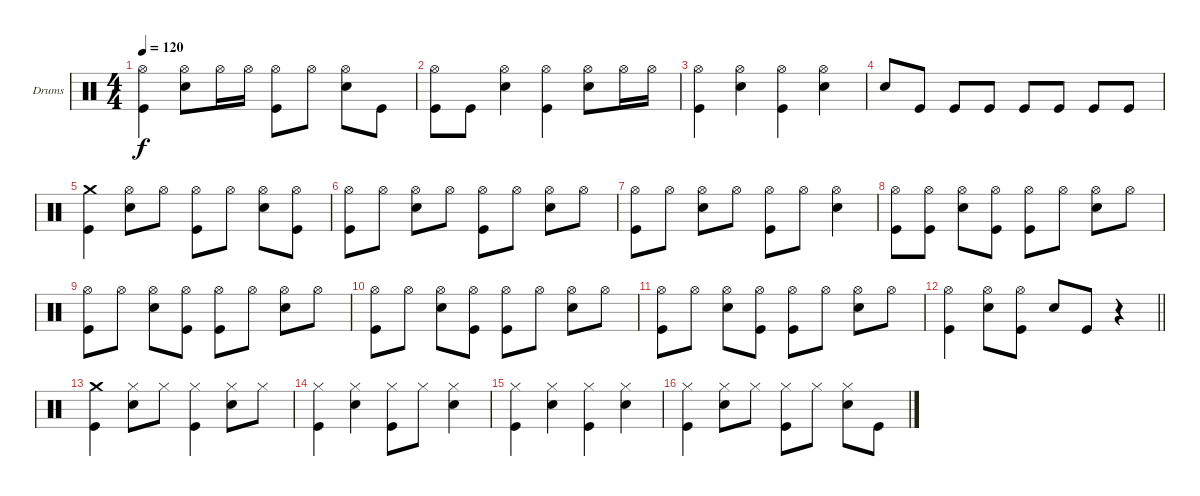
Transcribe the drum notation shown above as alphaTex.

\defaultSystemsLayout 4
\bracketExtendMode groupsimilarinstruments
\firstSystemTrackNameOrientation horizontal
\otherSystemsTrackNameOrientation horizontal
\track ("Drums" "Drums") {instrument percussion}
\staff {score}
\articulation defaults
\ts (4 4)
\tempo 120
\clef neutral
\ks c
("Kick (hit)" "Hi-Hat (open)").4{dy f} ("Hi-Hat (open)" "Snare (hit) 2").8 "Hi-Hat (open)".16 "Hi-Hat (open)".16 ("Kick (hit)" "Hi-Hat (open)").8 "Hi-Hat (open)".8 ("Hi-Hat (open)" "Snare (hit) 2").8 "Kick (hit)".8 |
("Kick (hit)" "Hi-Hat (open)").8 "Kick (hit)".8 ("Hi-Hat (open)" "Snare (hit) 2").4 ("Kick (hit)" "Hi-Hat (open)").4 ("Hi-Hat (open)" "Snare (hit) 2").8 "Hi-Hat (open)".16 "Hi-Hat (open)".16 |
("Kick (hit)" "Hi-Hat (open)").4 ("Hi-Hat (open)" "Snare (hit) 2").4 ("Kick (hit)" "Hi-Hat (open)").4 ("Hi-Hat (open)" "Snare (hit) 2").4 |
"Snare (hit) 2".8 "Kick (hit)".8 "Kick (hit)".8 "Kick (hit)".8 "Kick (hit)".8 "Kick (hit)".8 "Kick (hit)".8 "Kick (hit)".8 |
("Kick (hit)" "Crash medium (hit)").4 ("Hi-Hat (open)" "Snare (hit) 2").8 "Hi-Hat (open)".8 ("Kick (hit)" "Hi-Hat (open)").8 "Hi-Hat (open)".8 ("Hi-Hat (open)" "Snare (hit) 2").8 ("Hi-Hat (open)" "Kick (hit)").8 |
("Kick (hit)" "Hi-Hat (open)").8 "Hi-Hat (open)".8 ("Hi-Hat (open)" "Snare (hit) 2").8 "Hi-Hat (open)".8 ("Kick (hit)" "Hi-Hat (open)").8 "Hi-Hat (open)".8 ("Hi-Hat (open)" "Snare (hit) 2").8 "Hi-Hat (open)".8 |
("Kick (hit)" "Hi-Hat (open)").8 "Hi-Hat (open)".8 ("Hi-Hat (open)" "Snare (hit) 2").8 "Hi-Hat (open)".8 ("Kick (hit)" "Hi-Hat (open)").8 "Hi-Hat (open)".8 ("Hi-Hat (open)" "Snare (hit) 2").4 |
("Kick (hit)" "Hi-Hat (open)").8 ("Hi-Hat (open)" "Kick (hit)").8 ("Hi-Hat (open)" "Snare (hit) 2").8 ("Hi-Hat (open)" "Kick (hit)").8 ("Kick (hit)" "Hi-Hat (open)").8 "Hi-Hat (open)".8 ("Hi-Hat (open)" "Snare (hit) 2").8 "Hi-Hat (open)".8 |
("Kick (hit)" "Hi-Hat (open)").8 "Hi-Hat (open)".8 ("Hi-Hat (open)" "Snare (hit) 2").8 ("Hi-Hat (open)" "Kick (hit)").8 ("Kick (hit)" "Hi-Hat (open)").8 "Hi-Hat (open)".8 ("Hi-Hat (open)" "Snare (hit) 2").8 "Hi-Hat (open)".8 |
("Kick (hit)" "Hi-Hat (open)").8 "Hi-Hat (open)".8 ("Hi-Hat (open)" "Snare (hit) 2").8 ("Hi-Hat (open)" "Kick (hit)").8 ("Kick (hit)" "Hi-Hat (open)").8 "Hi-Hat (open)".8 ("Hi-Hat (open)" "Snare (hit) 2").8 "Hi-Hat (open)".8 |
("Kick (hit)" "Hi-Hat (open)").8 "Hi-Hat (open)".8 ("Hi-Hat (open)" "Snare (hit) 2").8 ("Hi-Hat (open)" "Kick (hit)").8 ("Kick (hit)" "Hi-Hat (open)").8 "Hi-Hat (open)".8 ("Hi-Hat (open)" "Snare (hit) 2").8 "Hi-Hat (open)".8 |
\barLineRight lightlight
("Kick (hit)" "Hi-Hat (open)").4 ("Hi-Hat (open)" "Snare (hit) 2").8 ("Kick (hit)" "Hi-Hat (open)").8 "Snare (hit) 2".8 "Kick (hit)".8 r.4 |
("Kick (hit)" "Crash medium (hit)").4 ("Hi-Hat (closed)" "Snare (hit) 2").8 "Hi-Hat (closed)".8 ("Kick (hit)" "Hi-Hat (closed)").4 ("Hi-Hat (closed)" "Snare (hit) 2").8 "Hi-Hat (closed)".8 |
("Kick (hit)" "Hi-Hat (closed)").4 ("Hi-Hat (closed)" "Snare (hit) 2").4 ("Kick (hit)" "Hi-Hat (closed)").8 "Hi-Hat (closed)".8 ("Hi-Hat (closed)" "Snare (hit) 2").4 |
("Kick (hit)" "Hi-Hat (closed)").4 ("Hi-Hat (closed)" "Snare (hit) 2").4 ("Kick (hit)" "Hi-Hat (closed)").4 ("Hi-Hat (closed)" "Snare (hit) 2").4 |
("Kick (hit)" "Hi-Hat (closed)").4 ("Hi-Hat (closed)" "Snare (hit) 2").8 "Hi-Hat (closed)".8 ("Kick (hit)" "Hi-Hat (closed)").8 "Hi-Hat (closed)".8 ("Hi-Hat (closed)" "Snare (hit) 2").8 "Kick (hit)".8
